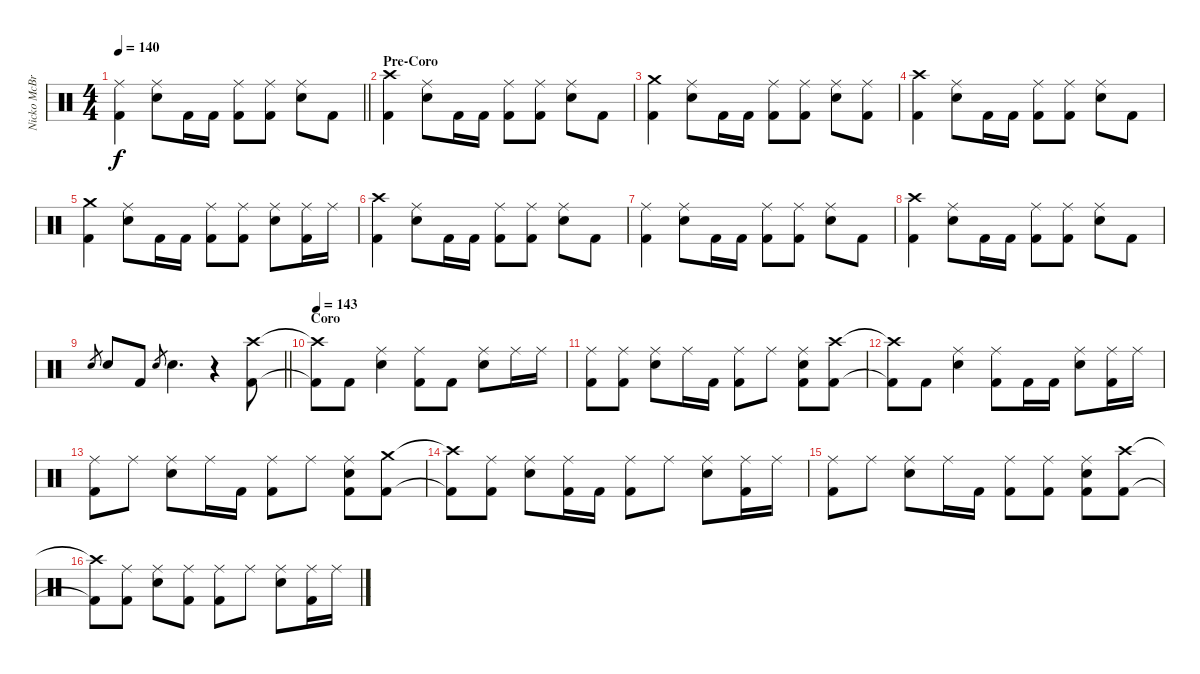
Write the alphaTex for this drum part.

\track ("Nicko McBrain" "Nicko McBr") {instrument percussion}
\staff {score}
\articulation defaults
\ts (4 4)
\tempo 140
\clef neutral
\barLineRight lightlight
\ks c
("Ride (middle)" "Kick (hit) 2").4{dy f} ("Ride (middle)" "Snare (hit) 2").8 "Kick (hit) 2".16 "Kick (hit) 2".16 ("Ride (middle)" "Kick (hit) 2").8 ("Ride (middle)" "Kick (hit) 2").8 ("Ride (middle)" "Snare (hit) 2").8 "Kick (hit) 2".8 |
\section ("" "Pre-Coro")
("Crash high (hit)" "Kick (hit) 2").4 ("Ride (middle)" "Snare (hit) 2").8 "Kick (hit) 2".16 "Kick (hit) 2".16 ("Ride (middle)" "Kick (hit) 2").8 ("Ride (middle)" "Kick (hit) 2").8 ("Ride (middle)" "Snare (hit) 2").8 "Kick (hit) 2".8 |
("Crash medium (hit)" "Kick (hit) 2").4 ("Ride (middle)" "Snare (hit) 2").8 "Kick (hit) 2".16 "Kick (hit) 2".16 ("Ride (middle)" "Kick (hit) 2").8 ("Ride (middle)" "Kick (hit) 2").8 ("Ride (middle)" "Snare (hit) 2").8 ("Ride (middle)" "Kick (hit) 2").8 |
("Crash high (hit)" "Kick (hit) 2").4 ("Ride (middle)" "Snare (hit) 2").8 "Kick (hit) 2".16 "Kick (hit) 2".16 ("Ride (middle)" "Kick (hit) 2").8 ("Ride (middle)" "Kick (hit) 2").8 ("Ride (middle)" "Snare (hit) 2").8 "Kick (hit) 2".8 |
("Crash medium (hit)" "Kick (hit) 2").4 ("Ride (middle)" "Snare (hit) 2").8 "Kick (hit) 2".16 "Kick (hit) 2".16 ("Ride (middle)" "Kick (hit) 2").8 ("Ride (middle)" "Kick (hit) 2").8 ("Ride (middle)" "Snare (hit) 2").8 ("Ride (middle)" "Kick (hit) 2").16 "Ride (middle)".16 |
("Crash high (hit)" "Kick (hit) 2").4 ("Ride (middle)" "Snare (hit) 2").8 "Kick (hit) 2".16 "Kick (hit) 2".16 ("Ride (middle)" "Kick (hit) 2").8 ("Ride (middle)" "Kick (hit) 2").8 ("Ride (middle)" "Snare (hit) 2").8 "Kick (hit) 2".8 |
("Ride (middle)" "Kick (hit) 2").4 ("Ride (middle)" "Snare (hit) 2").8 "Kick (hit) 2".16 "Kick (hit) 2".16 ("Ride (middle)" "Kick (hit) 2").8 ("Ride (middle)" "Kick (hit) 2").8 ("Ride (middle)" "Snare (hit) 2").8 "Kick (hit) 2".8 |
("Crash high (hit)" "Kick (hit) 2").4 ("Ride (middle)" "Snare (hit) 2").8 "Kick (hit) 2".16 "Kick (hit) 2".16 ("Ride (middle)" "Kick (hit) 2").8 ("Ride (middle)" "Kick (hit) 2").8 ("Ride (middle)" "Snare (hit) 2").8 "Kick (hit) 2".8 |
\barLineRight lightlight "Snare (hit) 2".8{gr} "Snare (hit) 2".8 "Kick (hit) 2".8 "Snare (hit) 2".8{gr} "Snare (hit) 2".4{d}
r.4 ("Crash high (hit)" "Kick (hit) 2").8 |
\section ("" "Coro")
\tempo 143
("Crash high (hit)"{t} "Kick (hit) 2"{t}).8 "Kick (hit) 2".8 ("Ride (middle)" "Snare (hit) 2").4 ("Ride (middle)" "Kick (hit) 2").8 "Kick (hit) 2".8 ("Ride (middle)" "Snare (hit) 2").8 "Ride (middle)".16 "Ride (middle)".16 |
("Ride (middle)" "Kick (hit) 2").8 ("Ride (middle)" "Kick (hit) 2").8 ("Ride (middle)" "Snare (hit) 2").8 "Ride (middle)".16 "Kick (hit) 2".16 ("Ride (middle)" "Kick (hit) 2").8 "Ride (middle)".8 ("Ride (middle)" "Snare (hit) 2" "Kick (hit) 2").8 ("Crash high (hit)" "Kick (hit) 2").8 |
("Crash high (hit)"{t} "Kick (hit) 2"{t}).8 "Kick (hit) 2".8 ("Ride (middle)" "Snare (hit) 2").4 ("Ride (middle)" "Kick (hit) 2").8 "Kick (hit) 2".16 "Kick (hit) 2".16 ("Ride (middle)" "Snare (hit) 2").8 ("Ride (middle)" "Kick (hit) 2").16 "Ride (middle)".16 |
("Ride (middle)" "Kick (hit) 2").8 "Ride (middle)".8 ("Ride (middle)" "Snare (hit) 2").8 "Ride (middle)".16 "Kick (hit) 2".16 ("Ride (middle)" "Kick (hit) 2").8 "Ride (middle)".8 ("Ride (middle)" "Snare (hit) 2" "Kick (hit) 2").8 ("Crash medium (hit)" "Kick (hit) 2").8 |
("Crash high (hit)"{t} "Kick (hit) 2"{t}).8 ("Ride (middle)" "Kick (hit) 2").8 ("Ride (middle)" "Snare (hit) 2").8 ("Ride (middle)" "Kick (hit) 2").16 "Kick (hit) 2".16 ("Ride (middle)" "Kick (hit) 2").8 "Ride (middle)".8 ("Ride (middle)" "Snare (hit) 2").8 ("Ride (middle)" "Kick (hit) 2").16 "Ride (middle)".16 |
("Ride (middle)" "Kick (hit) 2").8 "Ride (middle)".8 ("Ride (middle)" "Snare (hit) 2").8 "Ride (middle)".16 "Kick (hit) 2".16 ("Ride (middle)" "Kick (hit) 2").8 ("Ride (middle)" "Kick (hit) 2").8 ("Ride (middle)" "Snare (hit) 2" "Kick (hit) 2").8 ("Crash high (hit)" "Kick (hit) 2").8 |
("Crash high (hit)"{t} "Kick (hit) 2"{t}).8 ("Ride (middle)" "Kick (hit) 2").8 ("Ride (middle)" "Snare (hit) 2").8 ("Ride (middle)" "Kick (hit) 2").8 ("Ride (middle)" "Kick (hit) 2").8 "Ride (middle)".8 ("Ride (middle)" "Snare (hit) 2").8 ("Ride (middle)" "Kick (hit) 2").16 "Ride (middle)".16
